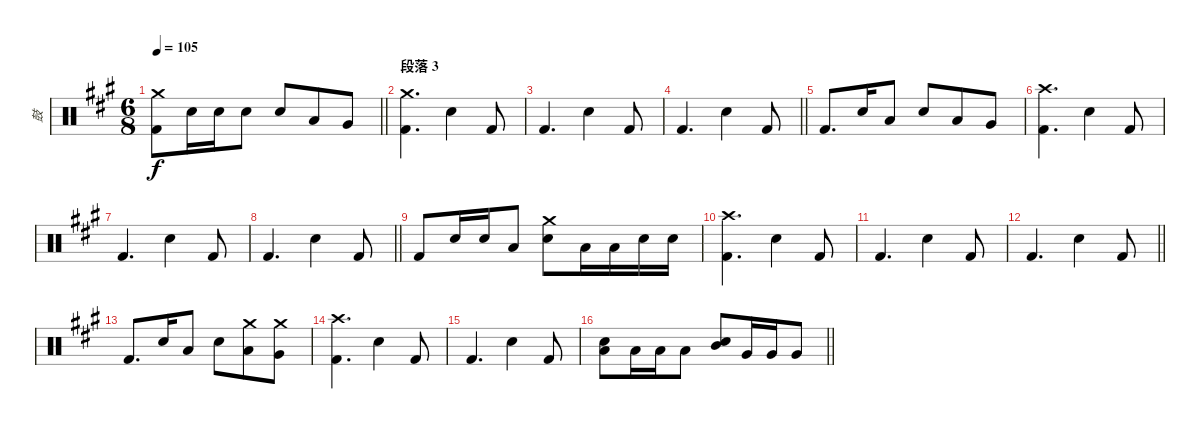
\track ("鼓" "鼓") {instrument percussion}
\staff {score}
\articulation defaults
\ts (6 8)
\tempo 105
\clef neutral
\barLineRight lightlight
\ks a
("Crash medium (hit)" "Kick (hit) 2").8{dy f} "Electric Snare (hit)".16 "Electric Snare (hit)".16 "Electric Snare (hit)".8 "Electric Snare (hit)".8 "Low Tom (hit)".8 "Very Low Tom (hit)".8 |
\section ("" "段落 3")
("Crash medium (hit)" "Kick (hit) 2").4{d} "Electric Snare (hit)".4 "Kick (hit) 2".8 |
"Kick (hit) 2".4{d} "Electric Snare (hit)".4 "Kick (hit) 2".8 |
\barLineRight lightlight "Kick (hit) 2".4{d} "Electric Snare (hit)".4 "Kick (hit) 2".8
|
"Kick (hit) 2".8{d} "Electric Snare (hit)".16 "Low Tom (hit)".8 "Electric Snare (hit)".8 "Low Tom (hit)".8 "Very Low Tom (hit)".8 |
("Crash high (hit)" "Kick (hit) 2").4{d} "Electric Snare (hit)".4 "Kick (hit) 2".8 |
"Kick (hit) 2".4{d} "Electric Snare (hit)".4 "Kick (hit) 2".8 |
\barLineRight lightlight "Kick (hit) 2".4{d} "Electric Snare (hit)".4 "Kick (hit) 2".8
|
"Kick (hit) 2".8 "Electric Snare (hit)".16 "Electric Snare (hit)".16 "Low Tom (hit)".8 ("Crash medium (hit)" "Electric Snare (hit)").8 "Low Tom (hit)".16 "Low Tom (hit)".16 "Electric Snare (hit)".16 "Electric Snare (hit)".16 |
("Crash high (hit)" "Kick (hit) 2").4{d} "Electric Snare (hit)".4 "Kick (hit) 2".8 |
"Kick (hit) 2".4{d} "Electric Snare (hit)".4 "Kick (hit) 2".8 |
\barLineRight lightlight "Kick (hit) 2".4{d} "Electric Snare (hit)".4 "Kick (hit) 2".8
|
"Kick (hit) 2".8{d} "Electric Snare (hit)".16 "Low Tom (hit)".8 "Electric Snare (hit)".8 ("Crash medium (hit)" "Low Tom (hit)").8 ("Crash medium (hit)" "Very Low Tom (hit)").8 |
("Crash high (hit)" "Kick (hit) 2").4{d} "Electric Snare (hit)".4 "Kick (hit) 2".8 |
"Kick (hit) 2".4{d} "Electric Snare (hit)".4 "Kick (hit) 2".8 |
\barLineRight lightlight
("Electric Snare (hit)" "Low Tom (hit)").8 "Low Tom (hit)".16 "Low Tom (hit)".16 "Low Tom (hit)".8 ("Electric Snare (hit)" "Mid Tom (hit)").8 "Very Low Tom (hit)".16 "Very Low Tom (hit)".16 "Very Low Tom (hit)".8
